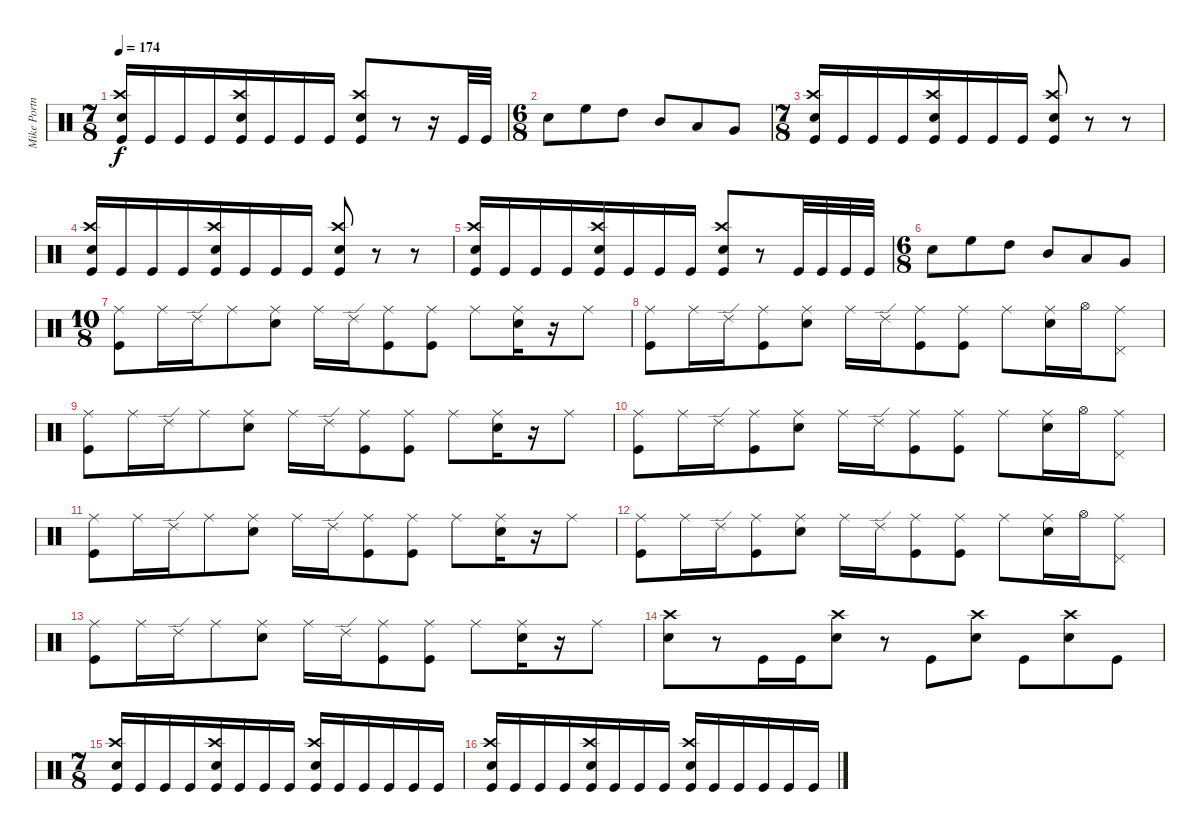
\track ("Mike Portnoy" "Mike Portn") {instrument percussion}
\staff {score}
\articulation defaults
\ts (7 8)
\tempo 174
\clef neutral
\ks c
("Snare (hit) 2" "Crash high (hit)" "Kick (hit)").16{dy f} "Kick (hit)".16 "Kick (hit)".16 "Kick (hit)".16 ("Snare (hit) 2" "Crash high (hit)" "Kick (hit)").16 "Kick (hit)".16 "Kick (hit)".16 "Kick (hit)".16 ("Snare (hit) 2" "Crash high (hit)" "Kick (hit)").8 r.8 r.16 "Kick (hit)".32 "Kick (hit)".32 |
\ts (6 8)
"Snare (hit) 2".8 "High Floor Tom (hit)".8 "High Tom (hit)".8 "Mid Tom (hit)".8 "Low Tom (hit)".8 "Very Low Tom (hit)".8 |
\ts (7 8)
("Snare (hit) 2" "Crash high (hit)" "Kick (hit)").16 "Kick (hit)".16 "Kick (hit)".16 "Kick (hit)".16 ("Snare (hit) 2" "Crash high (hit)" "Kick (hit)").16 "Kick (hit)".16 "Kick (hit)".16 "Kick (hit)".16 ("Snare (hit) 2" "Crash high (hit)" "Kick (hit)").8 r.8 r.8 |
("Snare (hit) 2" "Crash high (hit)" "Kick (hit)").16 "Kick (hit)".16 "Kick (hit)".16 "Kick (hit)".16 ("Snare (hit) 2" "Crash high (hit)" "Kick (hit)").16 "Kick (hit)".16 "Kick (hit)".16 "Kick (hit)".16 ("Snare (hit) 2" "Crash high (hit)" "Kick (hit)").8 r.8 r.8 |
("Snare (hit) 2" "Crash high (hit)" "Kick (hit)").16 "Kick (hit)".16 "Kick (hit)".16 "Kick (hit)".16 ("Snare (hit) 2" "Crash high (hit)" "Kick (hit)").16 "Kick (hit)".16 "Kick (hit)".16 "Kick (hit)".16 ("Snare (hit) 2" "Crash high (hit)" "Kick (hit)").8 r.8 "Kick (hit)".32 "Kick (hit)".32 "Kick (hit)".32 "Kick (hit)".32 |
\ts (6 8)
"Snare (hit) 2".8 "High Floor Tom (hit)".8 "High Tom (hit)".8 "Mid Tom (hit)".8 "Low Tom (hit)".8 "Very Low Tom (hit)".8 |
\ts (10 8)
("Ride (middle)" "Kick (hit)").8 "Ride (middle)".16 "Ride (edge) 2".16 "Ride (middle)".8 ("Snare (hit) 2" "Ride (middle)").8 "Ride (middle)".16 "Ride (edge) 2".16 ("Ride (middle)" "Kick (hit)").8 ("Ride (middle)" "Kick (hit)").8 "Ride (middle)".8 ("Snare (hit) 2" "Ride (middle)").16 r.16 "Ride (middle)".8 |
("Ride (middle)" "Kick (hit)").8 "Ride (middle)".16 "Ride (edge) 2".16 ("Ride (middle)" "Kick (hit)").8 ("Snare (hit) 2" "Ride (middle)").8 "Ride (middle)".16 "Ride (edge) 2".16 ("Ride (middle)" "Kick (hit)").8 ("Ride (middle)" "Kick (hit)").8 "Ride (middle)".8 ("Snare (hit) 2" "Ride (middle)").16 "Hi-Hat (open)".16 ("Ride (middle)" "Pedal Hi-Hat (hit)").8 |
("Ride (middle)" "Kick (hit)").8 "Ride (middle)".16 "Ride (edge) 2".16 "Ride (middle)".8 ("Snare (hit) 2" "Ride (middle)").8 "Ride (middle)".16 "Ride (edge) 2".16 ("Ride (middle)" "Kick (hit)").8 ("Ride (middle)" "Kick (hit)").8 "Ride (middle)".8 ("Snare (hit) 2" "Ride (middle)").16 r.16 "Ride (middle)".8 |
("Ride (middle)" "Kick (hit)").8 "Ride (middle)".16 "Ride (edge) 2".16 ("Ride (middle)" "Kick (hit)").8 ("Snare (hit) 2" "Ride (middle)").8 "Ride (middle)".16 "Ride (edge) 2".16 ("Ride (middle)" "Kick (hit)").8 ("Ride (middle)" "Kick (hit)").8 "Ride (middle)".8 ("Snare (hit) 2" "Ride (middle)").16 "Hi-Hat (open)".16 ("Ride (middle)" "Pedal Hi-Hat (hit)").8 |
("Ride (middle)" "Kick (hit)").8 "Ride (middle)".16 "Ride (edge) 2".16 "Ride (middle)".8 ("Snare (hit) 2" "Ride (middle)").8 "Ride (middle)".16 "Ride (edge) 2".16 ("Ride (middle)" "Kick (hit)").8 ("Ride (middle)" "Kick (hit)").8 "Ride (middle)".8 ("Snare (hit) 2" "Ride (middle)").16 r.16 "Ride (middle)".8 |
("Ride (middle)" "Kick (hit)").8 "Ride (middle)".16 "Ride (edge) 2".16 ("Ride (middle)" "Kick (hit)").8 ("Snare (hit) 2" "Ride (middle)").8 "Ride (middle)".16 "Ride (edge) 2".16 ("Ride (middle)" "Kick (hit)").8 ("Ride (middle)" "Kick (hit)").8 "Ride (middle)".8 ("Snare (hit) 2" "Ride (middle)").16 "Hi-Hat (open)".16 ("Ride (middle)" "Pedal Hi-Hat (hit)").8 |
("Ride (middle)" "Kick (hit)").8 "Ride (middle)".16 "Ride (edge) 2".16 "Ride (middle)".8 ("Snare (hit) 2" "Ride (middle)").8 "Ride (middle)".16 "Ride (edge) 2".16 ("Ride (middle)" "Kick (hit)").8 ("Ride (middle)" "Kick (hit)").8 "Ride (middle)".8 ("Snare (hit) 2" "Ride (middle)").16 r.16 "Ride (middle)".8 |
("Snare (hit) 2" "Crash high (hit)").8 r.8 "Kick (hit)".16 "Kick (hit)".16 ("Snare (hit) 2" "Crash high (hit)").8 r.8 "Kick (hit)".8 ("Snare (hit) 2" "Crash high (hit)").8 "Kick (hit)".8 ("Snare (hit) 2" "Crash high (hit)").8 "Kick (hit)".8 |
\ts (7 8)
("Snare (hit) 2" "Crash high (hit)" "Kick (hit)").16 "Kick (hit)".16 "Kick (hit)".16 "Kick (hit)".16 ("Snare (hit) 2" "Crash high (hit)" "Kick (hit)").16 "Kick (hit)".16 "Kick (hit)".16 "Kick (hit)".16 ("Snare (hit) 2" "Crash high (hit)" "Kick (hit)").16 "Kick (hit)".16 "Kick (hit)".16 "Kick (hit)".16 "Kick (hit)".16 "Kick (hit)".16 |
("Snare (hit) 2" "Crash high (hit)" "Kick (hit)").16 "Kick (hit)".16 "Kick (hit)".16 "Kick (hit)".16 ("Snare (hit) 2" "Crash high (hit)" "Kick (hit)").16 "Kick (hit)".16 "Kick (hit)".16 "Kick (hit)".16 ("Snare (hit) 2" "Crash high (hit)" "Kick (hit)").16 "Kick (hit)".16 "Kick (hit)".16 "Kick (hit)".16 "Kick (hit)".16 "Kick (hit)".16
